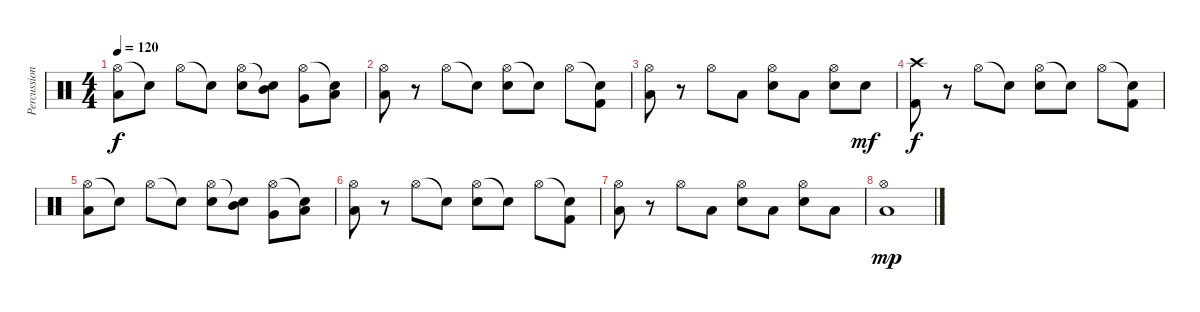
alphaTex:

\track ("Percussions" "Percussion") {instrument percussion}
\staff {score}
\articulation defaults
\ts (4 4)
\tempo 120
\clef neutral
\ks c
("Hi-Hat (open)" "Low Tom (hit)").8{dy f} "Snare (hit)"{t}.8 "Hi-Hat (open)".8 "Snare (hit)"{t}.8 ("Hi-Hat (open)" "Snare (hit) 2").8 ("Snare (hit)"{t} "Mid Tom (hit)").8 ("Hi-Hat (open)" "Very Low Tom (hit)").8 ("Snare (hit)"{t} "Low Floor Tom (hit)").8 |
("Hi-Hat (open)" "Low Tom (hit)").8 r.8 "Hi-Hat (open)".8 "Snare (hit)"{t}.8 ("Hi-Hat (open)" "Snare (hit) 2").8 "Snare (hit)"{t}.8 "Hi-Hat (open)".8 ("Snare (hit)"{t} "Kick (hit) 2").8 |
("Hi-Hat (open)" "Low Tom (hit)").8 r.8 "Hi-Hat (open)".8 "Low Tom (hit)".8 ("Hi-Hat (open)" "Snare (hit) 2").8 "Low Floor Tom (hit)".8 ("Hi-Hat (open)" "Snare (hit) 2").8 "Snare (hit) 2".8{dy mf} |
("Kick (hit) 2" "Crash high (hit)").8{dy f} r.8 "Hi-Hat (open)".8 "Snare (hit)"{t}.8 ("Hi-Hat (open)" "Snare (hit) 2").8 "Snare (hit)"{t}.8 "Hi-Hat (open)".8 ("Snare (hit)"{t} "Kick (hit) 2").8 |
("Hi-Hat (open)" "Low Tom (hit)").8 "Snare (hit)"{t}.8 "Hi-Hat (open)".8 "Snare (hit)"{t}.8 ("Hi-Hat (open)" "Snare (hit) 2").8 ("Snare (hit)"{t} "Mid Tom (hit)").8 ("Hi-Hat (open)" "Very Low Tom (hit)").8 ("Snare (hit)"{t} "Low Floor Tom (hit)").8 |
("Hi-Hat (open)" "Low Tom (hit)").8 r.8 "Hi-Hat (open)".8 "Snare (hit)"{t}.8 ("Hi-Hat (open)" "Snare (hit) 2").8 "Snare (hit)"{t}.8 "Hi-Hat (open)".8 ("Snare (hit)"{t} "Kick (hit) 2").8 |
("Hi-Hat (open)" "Low Tom (hit)").8 r.8 "Hi-Hat (open)".8 "Low Tom (hit)".8 ("Hi-Hat (open)" "Snare (hit) 2").8 "Low Floor Tom (hit)".8 ("Hi-Hat (open)" "Snare (hit) 2").8 "Low Floor Tom (hit)".8 |
("Low Tom (hit)" "Hi-Hat (open)").1{dy mp}
